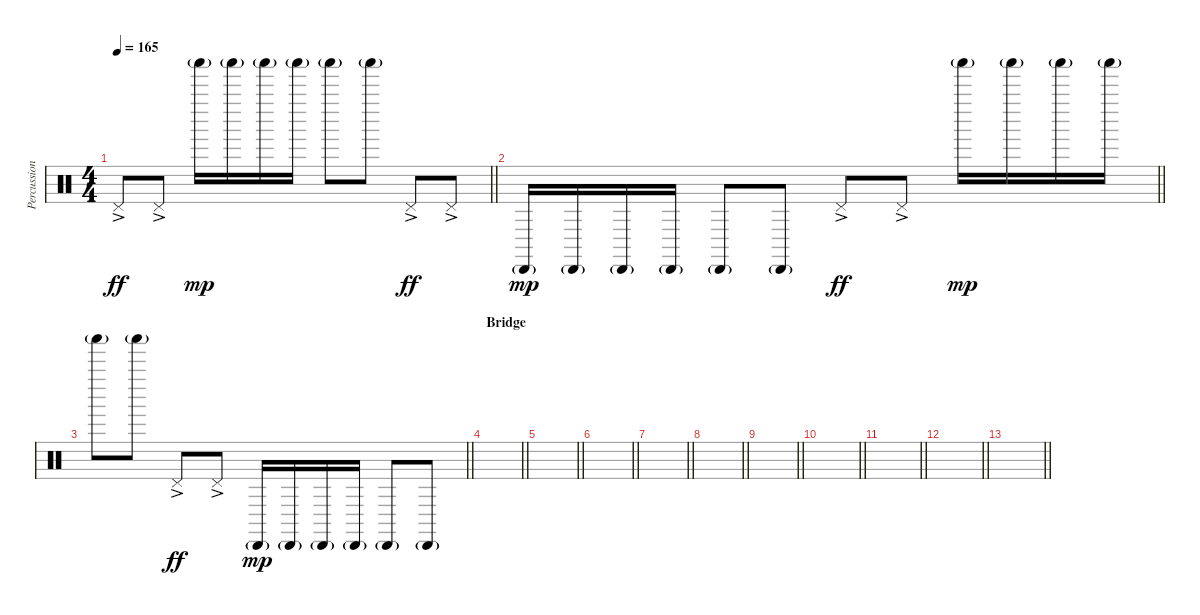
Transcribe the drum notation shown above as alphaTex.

\track ("Percussion" "Percussion") {instrument percussion}
\staff {score}
\articulation defaults
\ts (4 4)
\tempo 165
\clef neutral
\barLineRight lightlight
\ks c "Pedal Hi-Hat (hit)"{ac}.8{dy ff} "Pedal Hi-Hat (hit)"{ac}.8 "Shaker (hit)"{g}.16{dy mp} "Shaker (hit)"{g}.16 "Shaker (hit)"{g}.16 "Shaker (hit)"{g}.16 "Shaker (hit)"{g}.8 "Shaker (hit)"{g}.8 "Pedal Hi-Hat (hit)"{ac}.8{dy ff} "Pedal Hi-Hat (hit)"{ac}.8
|
\barLineRight lightlight "Cabasa (hit)"{g}.16{dy mp} "Cabasa (hit)"{g}.16 "Cabasa (hit)"{g}.16 "Cabasa (hit)"{g}.16 "Cabasa (hit)"{g}.8 "Cabasa (hit)"{g}.8 "Pedal Hi-Hat (hit)"{ac}.8{dy ff} "Pedal Hi-Hat (hit)"{ac}.8 "Shaker (hit)"{g}.16{dy mp} "Shaker (hit)"{g}.16 "Shaker (hit)"{g}.16 "Shaker (hit)"{g}.16
|
\barLineRight lightlight "Shaker (hit)"{g}.8 "Shaker (hit)"{g}.8 "Pedal Hi-Hat (hit)"{ac}.8{dy ff} "Pedal Hi-Hat (hit)"{ac}.8 "Cabasa (hit)"{g}.16{dy mp} "Cabasa (hit)"{g}.16 "Cabasa (hit)"{g}.16 "Cabasa (hit)"{g}.16 "Cabasa (hit)"{g}.8 "Cabasa (hit)"{g}.8
|
\section ("" "Bridge")
\barLineRight lightlight
|
\barLineRight lightlight
|
\barLineRight lightlight
|
\barLineRight lightlight
|
\barLineRight lightlight
|
\barLineRight lightlight
|
\barLineRight lightlight
|
\barLineRight lightlight
|
\barLineRight lightlight
|
\barLineRight lightlight
